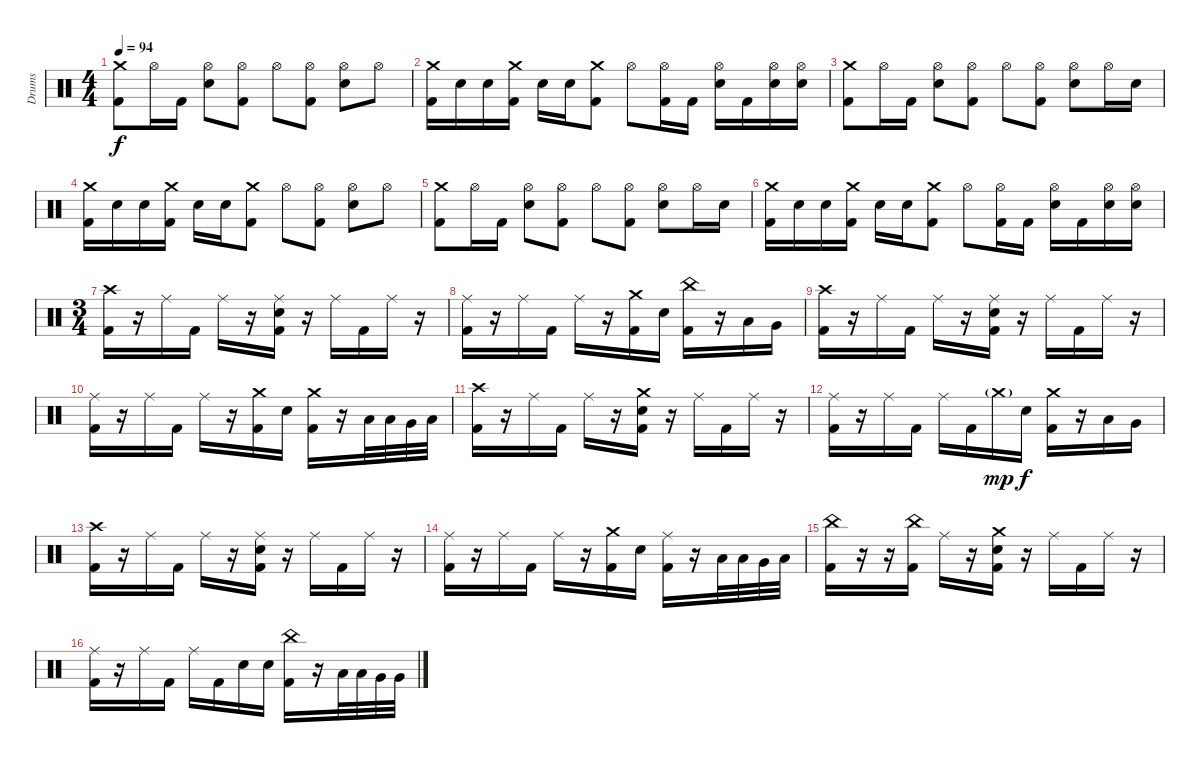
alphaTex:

\track ("Drums" "Drums") {instrument percussion}
\staff {score}
\articulation defaults
\ts (4 4)
\tempo 94
\clef neutral
\ks c
("Crash medium (hit)" "Kick (hit) 2").8{dy f} "Hi-Hat (open)".16 "Kick (hit) 2".16 ("Hi-Hat (open)" "Electric Snare (hit)").8 ("Hi-Hat (open)" "Kick (hit) 2").8 "Hi-Hat (open)".8 ("Hi-Hat (open)" "Kick (hit) 2").8 ("Hi-Hat (open)" "Electric Snare (hit)").8 "Hi-Hat (open)".8 |
("Crash medium (hit)" "Kick (hit) 2").16 "Electric Snare (hit)".16 "Electric Snare (hit)".16 ("Crash medium (hit)" "Kick (hit) 2").16 "Electric Snare (hit)".16 "Electric Snare (hit)".16 ("Crash medium (hit)" "Kick (hit) 2").8 "Hi-Hat (open)".8 ("Hi-Hat (open)" "Kick (hit) 2").16 "Kick (hit) 2".16 ("Hi-Hat (open)" "Electric Snare (hit)").16 "Kick (hit) 2".16 ("Hi-Hat (open)" "Electric Snare (hit)").16 ("Hi-Hat (open)" "Electric Snare (hit)").16 |
("Crash medium (hit)" "Kick (hit) 2").8 "Hi-Hat (open)".16 "Kick (hit) 2".16 ("Hi-Hat (open)" "Electric Snare (hit)").8 ("Hi-Hat (open)" "Kick (hit) 2").8 "Hi-Hat (open)".8 ("Hi-Hat (open)" "Kick (hit) 2").8 ("Hi-Hat (open)" "Electric Snare (hit)").8 "Hi-Hat (open)".16 "Electric Snare (hit)".16 |
("Crash medium (hit)" "Kick (hit) 2").16 "Electric Snare (hit)".16 "Electric Snare (hit)".16 ("Crash medium (hit)" "Kick (hit) 2").16 "Electric Snare (hit)".16 "Electric Snare (hit)".16 ("Crash medium (hit)" "Kick (hit) 2").8 "Hi-Hat (open)".8 ("Hi-Hat (open)" "Kick (hit) 2").8 ("Hi-Hat (open)" "Electric Snare (hit)").8 "Hi-Hat (open)".8 |
("Crash medium (hit)" "Kick (hit) 2").8 "Hi-Hat (open)".16 "Kick (hit) 2".16 ("Hi-Hat (open)" "Electric Snare (hit)").8 ("Hi-Hat (open)" "Kick (hit) 2").8 "Hi-Hat (open)".8 ("Hi-Hat (open)" "Kick (hit) 2").8 ("Hi-Hat (open)" "Electric Snare (hit)").8 "Hi-Hat (open)".16 "Electric Snare (hit)".16 |
("Crash medium (hit)" "Kick (hit) 2").16 "Electric Snare (hit)".16 "Electric Snare (hit)".16 ("Crash medium (hit)" "Kick (hit) 2").16 "Electric Snare (hit)".16 "Electric Snare (hit)".16 ("Crash medium (hit)" "Kick (hit) 2").8 "Hi-Hat (open)".8 ("Hi-Hat (open)" "Kick (hit) 2").16 "Kick (hit) 2".16 ("Hi-Hat (open)" "Electric Snare (hit)").16 "Kick (hit) 2".16 ("Hi-Hat (open)" "Electric Snare (hit)").16 ("Hi-Hat (open)" "Electric Snare (hit)").16 |
\ts (3 4)
("Crash high (hit)" "Kick (hit) 2").16 r.16 "Ride (middle)".16 "Kick (hit) 2".16 "Ride (middle)".16 r.16 ("Ride (middle)" "Electric Snare (hit)" "Kick (hit) 2").16 r.16 "Ride (middle)".16 "Kick (hit) 2".16 "Ride (middle)".16 r.16 |
("Ride (middle)" "Kick (hit) 2").16 r.16 "Ride (middle)".16 "Kick (hit) 2".16 "Ride (middle)".16 r.16 ("Crash medium (hit)" "Kick (hit) 2").16 "Electric Snare (hit)".16 ("China (hit)" "Kick (hit) 2").16 r.16 "Low Tom (hit)".16 "Very Low Tom (hit)".16 |
("Crash high (hit)" "Kick (hit) 2").16 r.16 "Ride (middle)".16 "Kick (hit) 2".16 "Ride (middle)".16 r.16 ("Ride (middle)" "Electric Snare (hit)" "Kick (hit) 2").16 r.16 "Ride (middle)".16 "Kick (hit) 2".16 "Ride (middle)".16 r.16 |
("Ride (middle)" "Kick (hit) 2").16 r.16 "Ride (middle)".16 "Kick (hit) 2".16 "Ride (middle)".16 r.16 ("Crash medium (hit)" "Kick (hit) 2").16 "Electric Snare (hit)".16 ("Crash medium (hit)" "Kick (hit) 2").16 r.16 "Low Tom (hit)".32 "Low Tom (hit)".32 "Very Low Tom (hit)".32 "Low Floor Tom (hit)".32 |
("Crash high (hit)" "Kick (hit) 2").16 r.16 "Ride (middle)".16 "Kick (hit) 2".16 "Ride (middle)".16 r.16 ("Crash medium (hit)" "Electric Snare (hit)" "Kick (hit) 2").16 r.16 "Ride (middle)".16 "Kick (hit) 2".16 "Ride (middle)".16 r.16 |
("Ride (middle)" "Kick (hit) 2").16 r.16 "Ride (middle)".16 "Kick (hit) 2".16 "Ride (middle)".16 "Kick (hit) 2".16 "Crash medium (hit)"{g}.16{dy mp} "Electric Snare (hit)".16{dy f} ("Crash medium (hit)" "Kick (hit) 2").16 r.16 "Low Tom (hit)".16 "Very Low Tom (hit)".16 |
("Crash high (hit)" "Kick (hit) 2").16 r.16 "Ride (middle)".16 "Kick (hit) 2".16 "Ride (middle)".16 r.16 ("Ride (middle)" "Electric Snare (hit)" "Kick (hit) 2").16 r.16 "Ride (middle)".16 "Kick (hit) 2".16 "Ride (middle)".16 r.16 |
("Ride (middle)" "Kick (hit) 2").16 r.16 "Ride (middle)".16 "Kick (hit) 2".16 "Ride (middle)".16 r.16 ("Crash medium (hit)" "Kick (hit) 2").16 "Electric Snare (hit)".16 ("Ride (middle)" "Kick (hit) 2").16 r.16 "Low Tom (hit)".32 "Low Tom (hit)".32 "Very Low Tom (hit)".32 "Low Floor Tom (hit)".32 |
("China (hit)" "Kick (hit) 2").16 r.16 r.16 ("China (hit)" "Kick (hit) 2").16 "Ride (middle)".16 r.16 ("Crash medium (hit)" "Electric Snare (hit)" "Kick (hit) 2").16 r.16 "Ride (middle)".16 "Kick (hit) 2".16 "Ride (middle)".16 r.16 |
("Ride (middle)" "Kick (hit) 2").16 r.16 "Ride (middle)".16 "Kick (hit) 2".16 "Ride (middle)".16 "Kick (hit) 2".16 "Electric Snare (hit)".16 "Electric Snare (hit)".16 ("China (hit)" "Kick (hit) 2").16 r.16 "Low Tom (hit)".32 "Low Tom (hit)".32 "Very Low Tom (hit)".32 "Very Low Tom (hit)".32
